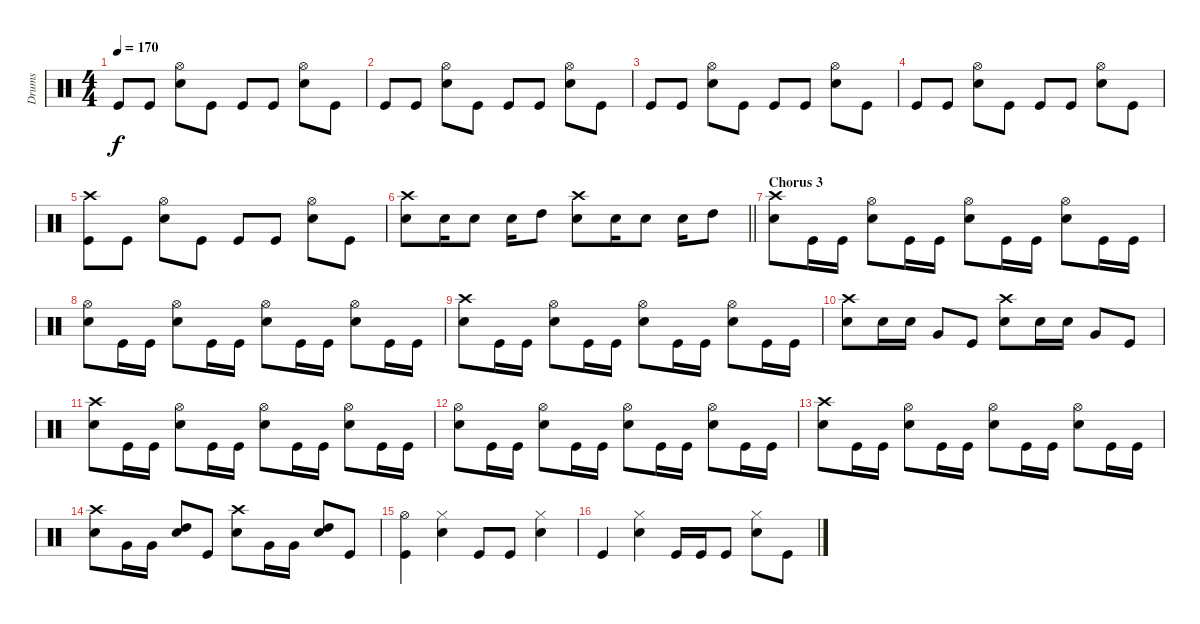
\track ("Drums" "Drums") {instrument percussion}
\staff {score}
\articulation defaults
\ts (4 4)
\tempo 170
\clef neutral
\ks c "Kick (hit)".8{dy f} "Kick (hit)".8
("Hi-Hat (open)" "Snare (hit) 2").8 "Kick (hit)".8 "Kick (hit)".8 "Kick (hit)".8 ("Hi-Hat (open)" "Snare (hit) 2").8 "Kick (hit)".8 |
"Kick (hit)".8 "Kick (hit)".8 ("Hi-Hat (open)" "Snare (hit) 2").8 "Kick (hit)".8 "Kick (hit)".8 "Kick (hit)".8 ("Hi-Hat (open)" "Snare (hit) 2").8 "Kick (hit)".8 |
"Kick (hit)".8 "Kick (hit)".8 ("Hi-Hat (open)" "Snare (hit) 2").8 "Kick (hit)".8 "Kick (hit)".8 "Kick (hit)".8 ("Hi-Hat (open)" "Snare (hit) 2").8 "Kick (hit)".8 |
"Kick (hit)".8 "Kick (hit)".8 ("Hi-Hat (open)" "Snare (hit) 2").8 "Kick (hit)".8 "Kick (hit)".8 "Kick (hit)".8 ("Hi-Hat (open)" "Snare (hit) 2").8 "Kick (hit)".8 |
("Crash high (hit)" "Kick (hit)").8 "Kick (hit)".8 ("Hi-Hat (open)" "Snare (hit) 2").8 "Kick (hit)".8 "Kick (hit)".8 "Kick (hit)".8 ("Hi-Hat (open)" "Snare (hit) 2").8 "Kick (hit)".8 |
\barLineRight lightlight
("Crash high (hit)" "Snare (hit) 2").8 "Snare (hit) 2".16 "Electric Snare (hit)".8 "Electric Snare (hit)".16 "High Tom (hit)".8 ("Crash high (hit)" "Snare (hit) 2").8 "Snare (hit) 2".16 "Electric Snare (hit)".8 "Electric Snare (hit)".16 "High Tom (hit)".8 |
\section ("" "Chorus 3")
("Crash high (hit)" "Snare (hit) 2").8 "Kick (hit)".16 "Kick (hit)".16 ("Hi-Hat (open)" "Snare (hit) 2").8 "Kick (hit)".16 "Kick (hit)".16 ("Hi-Hat (open)" "Snare (hit) 2").8 "Kick (hit)".16 "Kick (hit)".16 ("Hi-Hat (open)" "Snare (hit) 2").8 "Kick (hit)".16 "Kick (hit)".16 |
("Hi-Hat (open)" "Snare (hit) 2").8 "Kick (hit)".16 "Kick (hit)".16 ("Hi-Hat (open)" "Snare (hit) 2").8 "Kick (hit)".16 "Kick (hit)".16 ("Hi-Hat (open)" "Snare (hit) 2").8 "Kick (hit)".16 "Kick (hit)".16 ("Hi-Hat (open)" "Snare (hit) 2").8 "Kick (hit)".16 "Kick (hit)".16 |
("Crash high (hit)" "Snare (hit) 2").8 "Kick (hit)".16 "Kick (hit)".16 ("Hi-Hat (open)" "Snare (hit) 2").8 "Kick (hit)".16 "Kick (hit)".16 ("Hi-Hat (open)" "Snare (hit) 2").8 "Kick (hit)".16 "Kick (hit)".16 ("Hi-Hat (open)" "Snare (hit) 2").8 "Kick (hit)".16 "Kick (hit)".16 |
("Crash high (hit)" "Snare (hit) 2").8 "Snare (hit) 2".16 "Snare (hit) 2".16 "Very Low Tom (hit)".8 "Kick (hit)".8 ("Crash high (hit)" "Snare (hit) 2").8 "Snare (hit) 2".16 "Snare (hit) 2".16 "Very Low Tom (hit)".8 "Kick (hit)".8 |
("Crash high (hit)" "Snare (hit) 2").8 "Kick (hit)".16 "Kick (hit)".16 ("Hi-Hat (open)" "Snare (hit) 2").8 "Kick (hit)".16 "Kick (hit)".16 ("Hi-Hat (open)" "Snare (hit) 2").8 "Kick (hit)".16 "Kick (hit)".16 ("Hi-Hat (open)" "Snare (hit) 2").8 "Kick (hit)".16 "Kick (hit)".16 |
("Hi-Hat (open)" "Snare (hit) 2").8 "Kick (hit)".16 "Kick (hit)".16 ("Hi-Hat (open)" "Snare (hit) 2").8 "Kick (hit)".16 "Kick (hit)".16 ("Hi-Hat (open)" "Snare (hit) 2").8 "Kick (hit)".16 "Kick (hit)".16 ("Hi-Hat (open)" "Snare (hit) 2").8 "Kick (hit)".16 "Kick (hit)".16 |
("Crash high (hit)" "Snare (hit) 2").8 "Kick (hit)".16 "Kick (hit)".16 ("Hi-Hat (open)" "Snare (hit) 2").8 "Kick (hit)".16 "Kick (hit)".16 ("Hi-Hat (open)" "Snare (hit) 2").8 "Kick (hit)".16 "Kick (hit)".16 ("Hi-Hat (open)" "Snare (hit) 2").8 "Kick (hit)".16 "Kick (hit)".16 |
("Crash high (hit)" "Snare (hit) 2").8 "Very Low Tom (hit)".16 "Very Low Tom (hit)".16 ("High Tom (hit)" "Snare (hit) 2").8 "Kick (hit)".8 ("Crash high (hit)" "Snare (hit) 2").8 "Very Low Tom (hit)".16 "Very Low Tom (hit)".16 ("High Tom (hit)" "Snare (hit) 2").8 "Kick (hit)".8 |
("Hi-Hat (open)" "Kick (hit)").4 ("Hi-Hat (closed)" "Snare (hit) 2").4 "Kick (hit)".8 "Kick (hit)".8 ("Hi-Hat (closed)" "Snare (hit) 2").4 |
"Kick (hit)".4 ("Hi-Hat (closed)" "Snare (hit) 2").4 "Kick (hit)".16 "Kick (hit)".16 "Kick (hit)".8 ("Hi-Hat (closed)" "Snare (hit) 2").8 "Kick (hit)".8
